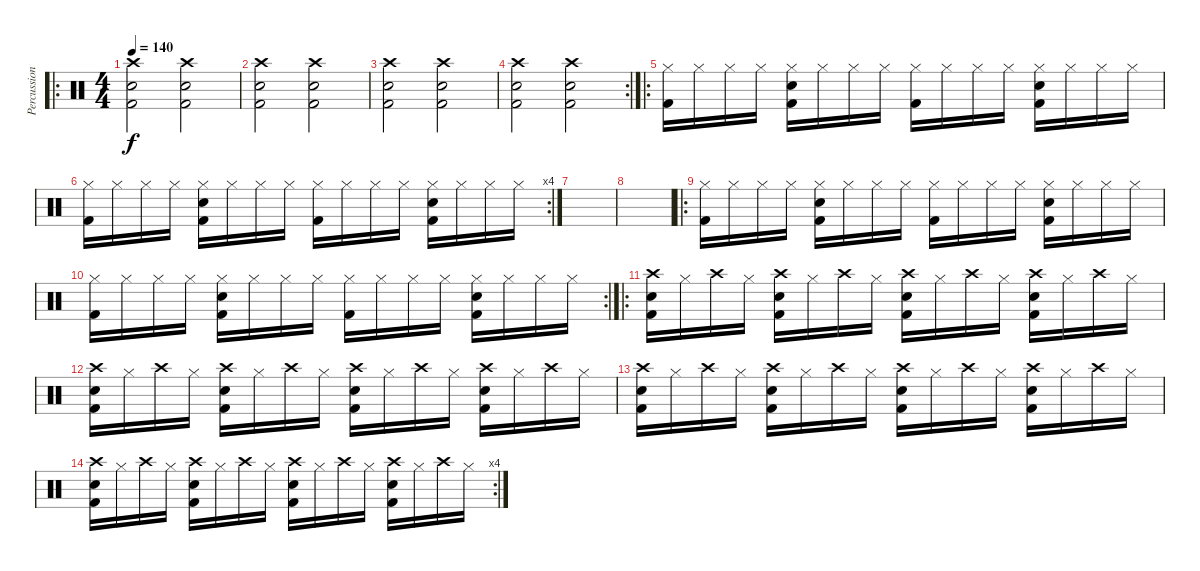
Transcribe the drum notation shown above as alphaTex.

\track ("Percussion" "Percussion") {instrument percussion}
\staff {score}
\articulation defaults
\ro
\ts (4 4)
\tempo 140
\clef neutral
\ks c
("Crash high (hit)" "Kick (hit) 2" "Electric Snare (hit)").2{dy f} ("Crash high (hit)" "Kick (hit) 2" "Electric Snare (hit)").2 |
("Crash high (hit)" "Kick (hit) 2" "Electric Snare (hit)").2 ("Crash high (hit)" "Kick (hit) 2" "Electric Snare (hit)").2 |
("Crash high (hit)" "Kick (hit) 2" "Electric Snare (hit)").2 ("Crash high (hit)" "Kick (hit) 2" "Electric Snare (hit)").2 |
\rc 2
("Crash high (hit)" "Kick (hit) 2" "Electric Snare (hit)").2 ("Crash high (hit)" "Kick (hit) 2" "Electric Snare (hit)").2 |
\ro
("Hi-Hat (closed)" "Kick (hit) 2").16 "Hi-Hat (closed)".16 "Hi-Hat (closed)".16 "Hi-Hat (closed)".16 ("Hi-Hat (closed)" "Kick (hit) 2" "Electric Snare (hit)").16 "Hi-Hat (closed)".16 "Hi-Hat (closed)".16 "Hi-Hat (closed)".16 ("Hi-Hat (closed)" "Kick (hit) 2").16 "Hi-Hat (closed)".16 "Hi-Hat (closed)".16 "Hi-Hat (closed)".16 ("Hi-Hat (closed)" "Kick (hit) 2" "Electric Snare (hit)").16 "Hi-Hat (closed)".16 "Hi-Hat (closed)".16 "Hi-Hat (closed)".16 |
\rc 4
("Hi-Hat (closed)" "Kick (hit) 2").16 "Hi-Hat (closed)".16 "Hi-Hat (closed)".16 "Hi-Hat (closed)".16 ("Hi-Hat (closed)" "Kick (hit) 2" "Electric Snare (hit)").16 "Hi-Hat (closed)".16 "Hi-Hat (closed)".16 "Hi-Hat (closed)".16 ("Hi-Hat (closed)" "Kick (hit) 2").16 "Hi-Hat (closed)".16 "Hi-Hat (closed)".16 "Hi-Hat (closed)".16 ("Hi-Hat (closed)" "Kick (hit) 2" "Electric Snare (hit)").16 "Hi-Hat (closed)".16 "Hi-Hat (closed)".16 "Hi-Hat (closed)".16 |
|
|
\ro
("Hi-Hat (closed)" "Kick (hit) 2").16 "Hi-Hat (closed)".16 "Hi-Hat (closed)".16 "Hi-Hat (closed)".16 ("Hi-Hat (closed)" "Kick (hit) 2" "Electric Snare (hit)").16 "Hi-Hat (closed)".16 "Hi-Hat (closed)".16 "Hi-Hat (closed)".16 ("Hi-Hat (closed)" "Kick (hit) 2").16 "Hi-Hat (closed)".16 "Hi-Hat (closed)".16 "Hi-Hat (closed)".16 ("Hi-Hat (closed)" "Kick (hit) 2" "Electric Snare (hit)").16 "Hi-Hat (closed)".16 "Hi-Hat (closed)".16 "Hi-Hat (closed)".16 |
\rc 2
("Hi-Hat (closed)" "Kick (hit) 2").16 "Hi-Hat (closed)".16 "Hi-Hat (closed)".16 "Hi-Hat (closed)".16 ("Hi-Hat (closed)" "Kick (hit) 2" "Electric Snare (hit)").16 "Hi-Hat (closed)".16 "Hi-Hat (closed)".16 "Hi-Hat (closed)".16 ("Hi-Hat (closed)" "Kick (hit) 2").16 "Hi-Hat (closed)".16 "Hi-Hat (closed)".16 "Hi-Hat (closed)".16 ("Hi-Hat (closed)" "Kick (hit) 2" "Electric Snare (hit)").16 "Hi-Hat (closed)".16 "Hi-Hat (closed)".16 "Hi-Hat (closed)".16 |
\ro
("Crash high (hit)" "Kick (hit) 2" "Electric Snare (hit)").16 "Hi-Hat (closed)"{x}.16 "Crash high (hit)".16 "Hi-Hat (closed)"{x}.16 ("Crash high (hit)" "Kick (hit) 2" "Electric Snare (hit)").16 "Hi-Hat (closed)"{x}.16 "Crash high (hit)".16 "Hi-Hat (closed)"{x}.16 ("Crash high (hit)" "Kick (hit) 2" "Electric Snare (hit)").16 "Hi-Hat (closed)"{x}.16 "Crash high (hit)".16 "Hi-Hat (closed)"{x}.16 ("Crash high (hit)" "Kick (hit) 2" "Electric Snare (hit)").16 "Hi-Hat (closed)"{x}.16 "Crash high (hit)".16 "Hi-Hat (closed)"{x}.16 |
("Crash high (hit)" "Kick (hit) 2" "Electric Snare (hit)").16 "Hi-Hat (closed)"{x}.16 "Crash high (hit)".16 "Hi-Hat (closed)"{x}.16 ("Crash high (hit)" "Kick (hit) 2" "Electric Snare (hit)").16 "Hi-Hat (closed)"{x}.16 "Crash high (hit)".16 "Hi-Hat (closed)"{x}.16 ("Crash high (hit)" "Kick (hit) 2" "Electric Snare (hit)").16 "Hi-Hat (closed)"{x}.16 "Crash high (hit)".16 "Hi-Hat (closed)"{x}.16 ("Crash high (hit)" "Kick (hit) 2" "Electric Snare (hit)").16 "Hi-Hat (closed)"{x}.16 "Crash high (hit)".16 "Hi-Hat (closed)"{x}.16 |
("Crash high (hit)" "Kick (hit) 2" "Electric Snare (hit)").16 "Hi-Hat (closed)"{x}.16 "Crash high (hit)".16 "Hi-Hat (closed)"{x}.16 ("Crash high (hit)" "Kick (hit) 2" "Electric Snare (hit)").16 "Hi-Hat (closed)"{x}.16 "Crash high (hit)".16 "Hi-Hat (closed)"{x}.16 ("Crash high (hit)" "Kick (hit) 2" "Electric Snare (hit)").16 "Hi-Hat (closed)"{x}.16 "Crash high (hit)".16 "Hi-Hat (closed)"{x}.16 ("Crash high (hit)" "Kick (hit) 2" "Electric Snare (hit)").16 "Hi-Hat (closed)"{x}.16 "Crash high (hit)".16 "Hi-Hat (closed)"{x}.16 |
\rc 4
("Crash high (hit)" "Kick (hit) 2" "Electric Snare (hit)").16 "Hi-Hat (closed)"{x}.16 "Crash high (hit)".16 "Hi-Hat (closed)"{x}.16 ("Crash high (hit)" "Kick (hit) 2" "Electric Snare (hit)").16 "Hi-Hat (closed)"{x}.16 "Crash high (hit)".16 "Hi-Hat (closed)"{x}.16 ("Crash high (hit)" "Kick (hit) 2" "Electric Snare (hit)").16 "Hi-Hat (closed)"{x}.16 "Crash high (hit)".16 "Hi-Hat (closed)"{x}.16 ("Crash high (hit)" "Kick (hit) 2" "Electric Snare (hit)").16 "Hi-Hat (closed)"{x}.16 "Crash high (hit)".16 "Hi-Hat (closed)"{x}.16
